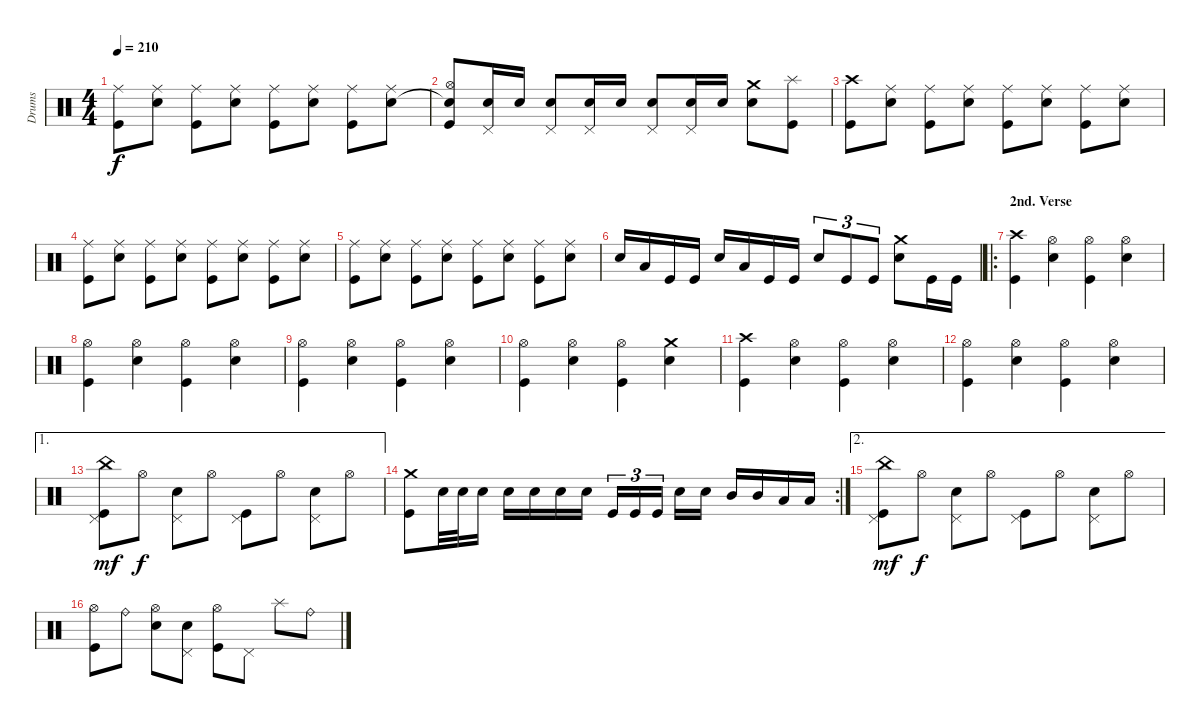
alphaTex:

\track ("Drums" "Drums") {instrument percussion}
\staff {score}
\articulation defaults
\ts (4 4)
\tempo 210
\clef neutral
\ks c
("Ride (middle)" "Kick (hit)").8{dy f} ("Ride (middle)" "Electric Snare (hit)").8 ("Ride (middle)" "Kick (hit)").8 ("Ride (middle)" "Electric Snare (hit)").8 ("Ride (middle)" "Kick (hit)").8 ("Ride (middle)" "Electric Snare (hit)").8 ("Ride (middle)" "Kick (hit)").8 ("Ride (middle)" "Electric Snare (hit)").8 |
("Hi-Hat (open)" "Snare (hit)"{t} "Kick (hit)").8 ("Pedal Hi-Hat (hit)" "Electric Snare (hit)").16 "Electric Snare (hit)".16 ("Pedal Hi-Hat (hit)" "Electric Snare (hit)").8 ("Pedal Hi-Hat (hit)" "Electric Snare (hit)").16 "Electric Snare (hit)".16 ("Pedal Hi-Hat (hit)" "Electric Snare (hit)").8 ("Pedal Hi-Hat (hit)" "Electric Snare (hit)").16 "Electric Snare (hit)".16 ("Crash medium (hit)" "Electric Snare (hit)").8 ("Splash (hit)" "Kick (hit)").8 |
("Crash high (hit)" "Kick (hit)").8 ("Ride (middle)" "Electric Snare (hit)").8 ("Ride (middle)" "Kick (hit)").8 ("Ride (middle)" "Electric Snare (hit)").8 ("Ride (middle)" "Kick (hit)").8 ("Ride (middle)" "Electric Snare (hit)").8 ("Ride (middle)" "Kick (hit)").8 ("Ride (middle)" "Electric Snare (hit)").8 |
("Ride (middle)" "Kick (hit)").8 ("Ride (middle)" "Electric Snare (hit)").8 ("Ride (middle)" "Kick (hit)").8 ("Ride (middle)" "Electric Snare (hit)").8 ("Ride (middle)" "Kick (hit)").8 ("Ride (middle)" "Electric Snare (hit)").8 ("Ride (middle)" "Kick (hit)").8 ("Ride (middle)" "Electric Snare (hit)").8 |
("Ride (middle)" "Kick (hit)").8 ("Ride (middle)" "Electric Snare (hit)").8 ("Ride (middle)" "Kick (hit)").8 ("Ride (middle)" "Electric Snare (hit)").8 ("Ride (middle)" "Kick (hit)").8 ("Ride (middle)" "Electric Snare (hit)").8 ("Ride (middle)" "Kick (hit)").8 ("Ride (middle)" "Electric Snare (hit)").8 |
"Electric Snare (hit)".16 "Low Tom (hit)".16 "Kick (hit)".16 "Kick (hit)".16 "Electric Snare (hit)".16 "Low Tom (hit)".16 "Kick (hit)".16 "Kick (hit)".16 "Electric Snare (hit)".8{tu (3 2)} "Kick (hit)".8{tu (3 2)} "Kick (hit)".8{tu (3 2)} ("Crash medium (hit)" "Electric Snare (hit)").8 "Kick (hit)".16 "Kick (hit)".16 |
\ro
\section ("" "2nd. Verse")
("Crash high (hit)" "Kick (hit)").4 ("Hi-Hat (open)" "Electric Snare (hit)").4 ("Hi-Hat (open)" "Kick (hit)").4 ("Hi-Hat (open)" "Electric Snare (hit)").4 |
("Hi-Hat (open)" "Kick (hit)").4 ("Hi-Hat (open)" "Electric Snare (hit)").4 ("Hi-Hat (open)" "Kick (hit)").4 ("Hi-Hat (open)" "Electric Snare (hit)").4 |
("Hi-Hat (open)" "Kick (hit)").4 ("Hi-Hat (open)" "Electric Snare (hit)").4 ("Hi-Hat (open)" "Kick (hit)").4 ("Hi-Hat (open)" "Electric Snare (hit)").4 |
("Hi-Hat (open)" "Kick (hit)").4 ("Hi-Hat (open)" "Electric Snare (hit)").4 ("Hi-Hat (open)" "Kick (hit)").4 ("Crash medium (hit)" "Electric Snare (hit)").4 |
("Crash high (hit)" "Kick (hit)").4 ("Hi-Hat (open)" "Electric Snare (hit)").4 ("Hi-Hat (open)" "Kick (hit)").4 ("Hi-Hat (open)" "Electric Snare (hit)").4 |
("Hi-Hat (open)" "Kick (hit)").4 ("Hi-Hat (open)" "Electric Snare (hit)").4 ("Hi-Hat (open)" "Kick (hit)").4 ("Hi-Hat (open)" "Electric Snare (hit)").4 |
\ae 1
("China (hit)" "Pedal Hi-Hat (hit)" "Kick (hit)").8{dy mf} "Hi-Hat (open)".8{dy f} ("Pedal Hi-Hat (hit)" "Electric Snare (hit)").8 "Hi-Hat (open)".8 ("Pedal Hi-Hat (hit)" "Kick (hit)").8 "Hi-Hat (open)".8 ("Pedal Hi-Hat (hit)" "Electric Snare (hit)").8 "Hi-Hat (open)".8 |
\rc 2
("Crash medium (hit)" "Kick (hit)").8 "Electric Snare (hit)".32 "Electric Snare (hit)".32 "Electric Snare (hit)".16 "Electric Snare (hit)".16 "Electric Snare (hit)".16 "Electric Snare (hit)".16 "Electric Snare (hit)".16 "Kick (hit)".16{tu (3 2)} "Kick (hit)".16{tu (3 2)} "Kick (hit)".16{tu (3 2)} "Electric Snare (hit)".16 "Electric Snare (hit)".16 "Mid Tom (hit)".16 "Mid Tom (hit)".16 "Low Tom (hit)".16 "Low Tom (hit)".16 |
\ae 2
("China (hit)" "Pedal Hi-Hat (hit)" "Kick (hit)").8{dy mf} "Hi-Hat (open)".8{dy f} ("Pedal Hi-Hat (hit)" "Electric Snare (hit)").8 "Hi-Hat (open)".8 ("Pedal Hi-Hat (hit)" "Kick (hit)").8 "Hi-Hat (open)".8 ("Pedal Hi-Hat (hit)" "Electric Snare (hit)").8 "Hi-Hat (open)".8 |
("Hi-Hat (open)" "Kick (hit)").8 "Ride (bell)".8 ("Hi-Hat (open)" "Electric Snare (hit)").8 ("Pedal Hi-Hat (hit)" "Electric Snare (hit)").8 ("Hi-Hat (open)" "Kick (hit)").8 "Pedal Hi-Hat (hit)".8 "Splash (hit)".8 "Ride (bell)".8
